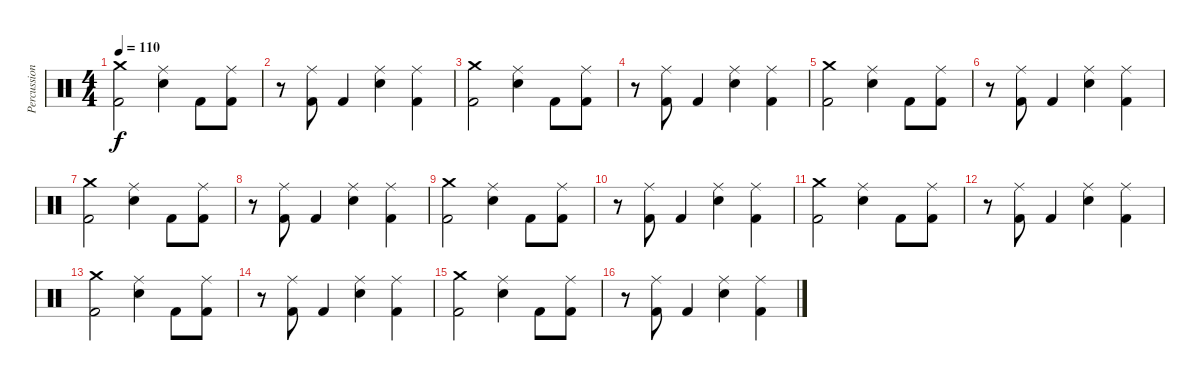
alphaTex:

\track ("Percussion" "Percussion") {instrument percussion}
\staff {score}
\articulation defaults
\ts (4 4)
\tempo 110
\clef neutral
\ks c
("Crash medium (hit)" "Kick (hit) 2").2{dy f} ("Ride (middle)" "Electric Snare (hit)").4 "Kick (hit) 2".8 ("Ride (middle)" "Kick (hit) 2").8 |
r.8 ("Ride (middle)" "Kick (hit) 2").8 "Kick (hit) 2".4 ("Ride (middle)" "Electric Snare (hit)").4 ("Ride (middle)" "Kick (hit) 2").4 |
("Crash medium (hit)" "Kick (hit) 2").2 ("Ride (middle)" "Electric Snare (hit)").4 "Kick (hit) 2".8 ("Ride (middle)" "Kick (hit) 2").8 |
r.8 ("Ride (middle)" "Kick (hit) 2").8 "Kick (hit) 2".4 ("Ride (middle)" "Electric Snare (hit)").4 ("Ride (middle)" "Kick (hit) 2").4 |
("Crash medium (hit)" "Kick (hit) 2").2 ("Ride (middle)" "Electric Snare (hit)").4 "Kick (hit) 2".8 ("Ride (middle)" "Kick (hit) 2").8 |
r.8 ("Ride (middle)" "Kick (hit) 2").8 "Kick (hit) 2".4 ("Ride (middle)" "Electric Snare (hit)").4 ("Ride (middle)" "Kick (hit) 2").4 |
("Crash medium (hit)" "Kick (hit) 2").2 ("Ride (middle)" "Electric Snare (hit)").4 "Kick (hit) 2".8 ("Ride (middle)" "Kick (hit) 2").8 |
r.8 ("Ride (middle)" "Kick (hit) 2").8 "Kick (hit) 2".4 ("Ride (middle)" "Electric Snare (hit)").4 ("Ride (middle)" "Kick (hit) 2").4 |
("Crash medium (hit)" "Kick (hit) 2").2 ("Ride (middle)" "Electric Snare (hit)").4 "Kick (hit) 2".8 ("Ride (middle)" "Kick (hit) 2").8 |
r.8 ("Ride (middle)" "Kick (hit) 2").8 "Kick (hit) 2".4 ("Ride (middle)" "Electric Snare (hit)").4 ("Ride (middle)" "Kick (hit) 2").4 |
("Crash medium (hit)" "Kick (hit) 2").2 ("Ride (middle)" "Electric Snare (hit)").4 "Kick (hit) 2".8 ("Ride (middle)" "Kick (hit) 2").8 |
r.8 ("Ride (middle)" "Kick (hit) 2").8 "Kick (hit) 2".4 ("Ride (middle)" "Electric Snare (hit)").4 ("Ride (middle)" "Kick (hit) 2").4 |
("Crash medium (hit)" "Kick (hit) 2").2 ("Ride (middle)" "Electric Snare (hit)").4 "Kick (hit) 2".8 ("Ride (middle)" "Kick (hit) 2").8 |
r.8 ("Ride (middle)" "Kick (hit) 2").8 "Kick (hit) 2".4 ("Ride (middle)" "Electric Snare (hit)").4 ("Ride (middle)" "Kick (hit) 2").4 |
("Crash medium (hit)" "Kick (hit) 2").2 ("Ride (middle)" "Electric Snare (hit)").4 "Kick (hit) 2".8 ("Ride (middle)" "Kick (hit) 2").8 |
r.8 ("Ride (middle)" "Kick (hit) 2").8 "Kick (hit) 2".4 ("Ride (middle)" "Electric Snare (hit)").4 ("Ride (middle)" "Kick (hit) 2").4
